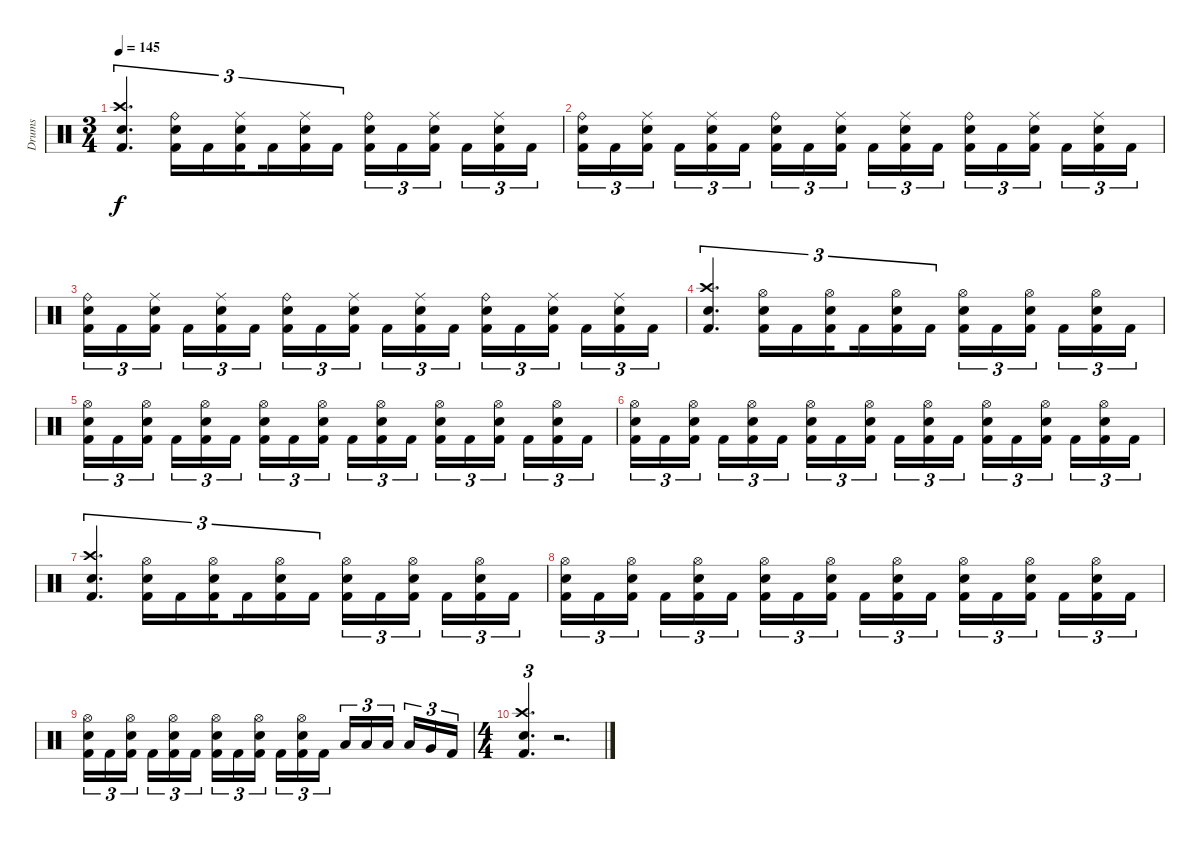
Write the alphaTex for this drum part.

\track ("Drums" "Drums") {instrument percussion}
\staff {score}
\articulation defaults
\ts (3 4)
\tempo 145
\clef neutral
\ks c
("Kick (hit) 2" "Crash high (hit)" "Snare (hit) 2").4{d tu (3 2) dy f} ("Kick (hit) 2" "Snare (hit) 2" "Ride (bell)").16{tu (3 2)} "Kick (hit) 2".16{tu (3 2)} ("Kick (hit) 2" "Snare (hit) 2" "Ride (middle)").16{tu (3 2) beam splitsecondary} "Kick (hit) 2".16{tu (3 2)} ("Kick (hit) 2" "Snare (hit) 2" "Ride (middle)").16{tu (3 2)} "Kick (hit) 2".16{tu (3 2)} ("Kick (hit) 2" "Snare (hit) 2" "Ride (bell)").16{tu (3 2)} "Kick (hit) 2".16{tu (3 2)} ("Kick (hit) 2" "Snare (hit) 2" "Ride (middle)").16{tu (3 2) beam splitsecondary} "Kick (hit) 2".16{tu (3 2)} ("Kick (hit) 2" "Snare (hit) 2" "Ride (middle)").16{tu (3 2)} "Kick (hit) 2".16{tu (3 2)} |
("Kick (hit) 2" "Snare (hit) 2" "Ride (bell)").16{tu (3 2)} "Kick (hit) 2".16{tu (3 2)} ("Kick (hit) 2" "Snare (hit) 2" "Ride (middle)").16{tu (3 2) beam splitsecondary} "Kick (hit) 2".16{tu (3 2)} ("Kick (hit) 2" "Snare (hit) 2" "Ride (middle)").16{tu (3 2)} "Kick (hit) 2".16{tu (3 2)} ("Kick (hit) 2" "Snare (hit) 2" "Ride (bell)").16{tu (3 2)} "Kick (hit) 2".16{tu (3 2)} ("Kick (hit) 2" "Snare (hit) 2" "Ride (middle)").16{tu (3 2) beam splitsecondary} "Kick (hit) 2".16{tu (3 2)} ("Kick (hit) 2" "Snare (hit) 2" "Ride (middle)").16{tu (3 2)} "Kick (hit) 2".16{tu (3 2)} ("Kick (hit) 2" "Snare (hit) 2" "Ride (bell)").16{tu (3 2)} "Kick (hit) 2".16{tu (3 2)} ("Kick (hit) 2" "Snare (hit) 2" "Ride (middle)").16{tu (3 2) beam splitsecondary} "Kick (hit) 2".16{tu (3 2)} ("Kick (hit) 2" "Snare (hit) 2" "Ride (middle)").16{tu (3 2)} "Kick (hit) 2".16{tu (3 2)} |
("Kick (hit) 2" "Snare (hit) 2" "Ride (bell)").16{tu (3 2)} "Kick (hit) 2".16{tu (3 2)} ("Kick (hit) 2" "Snare (hit) 2" "Ride (middle)").16{tu (3 2) beam splitsecondary} "Kick (hit) 2".16{tu (3 2)} ("Kick (hit) 2" "Snare (hit) 2" "Ride (middle)").16{tu (3 2)} "Kick (hit) 2".16{tu (3 2)} ("Kick (hit) 2" "Snare (hit) 2" "Ride (bell)").16{tu (3 2)} "Kick (hit) 2".16{tu (3 2)} ("Kick (hit) 2" "Snare (hit) 2" "Ride (middle)").16{tu (3 2) beam splitsecondary} "Kick (hit) 2".16{tu (3 2)} ("Kick (hit) 2" "Snare (hit) 2" "Ride (middle)").16{tu (3 2)} "Kick (hit) 2".16{tu (3 2)} ("Kick (hit) 2" "Snare (hit) 2" "Ride (bell)").16{tu (3 2)} "Kick (hit) 2".16{tu (3 2)} ("Kick (hit) 2" "Snare (hit) 2" "Ride (middle)").16{tu (3 2) beam splitsecondary} "Kick (hit) 2".16{tu (3 2)} ("Kick (hit) 2" "Snare (hit) 2" "Ride (middle)").16{tu (3 2)} "Kick (hit) 2".16{tu (3 2)} |
("Kick (hit) 2" "Crash high (hit)" "Snare (hit) 2").4{d tu (3 2)} ("Kick (hit) 2" "Snare (hit) 2" "Hi-Hat (open)").16{tu (3 2)} "Kick (hit) 2".16{tu (3 2)} ("Kick (hit) 2" "Snare (hit) 2" "Hi-Hat (open)").16{tu (3 2) beam splitsecondary} "Kick (hit) 2".16{tu (3 2)} ("Kick (hit) 2" "Snare (hit) 2" "Hi-Hat (open)").16{tu (3 2)} "Kick (hit) 2".16{tu (3 2)} ("Kick (hit) 2" "Snare (hit) 2" "Hi-Hat (open)").16{tu (3 2)} "Kick (hit) 2".16{tu (3 2)} ("Kick (hit) 2" "Snare (hit) 2" "Hi-Hat (open)").16{tu (3 2) beam splitsecondary} "Kick (hit) 2".16{tu (3 2)} ("Kick (hit) 2" "Snare (hit) 2" "Hi-Hat (open)").16{tu (3 2)} "Kick (hit) 2".16{tu (3 2)} |
("Kick (hit) 2" "Snare (hit) 2" "Hi-Hat (open)").16{tu (3 2)} "Kick (hit) 2".16{tu (3 2)} ("Kick (hit) 2" "Snare (hit) 2" "Hi-Hat (open)").16{tu (3 2) beam splitsecondary} "Kick (hit) 2".16{tu (3 2)} ("Kick (hit) 2" "Snare (hit) 2" "Hi-Hat (open)").16{tu (3 2)} "Kick (hit) 2".16{tu (3 2)} ("Kick (hit) 2" "Snare (hit) 2" "Hi-Hat (open)").16{tu (3 2)} "Kick (hit) 2".16{tu (3 2)} ("Kick (hit) 2" "Snare (hit) 2" "Hi-Hat (open)").16{tu (3 2) beam splitsecondary} "Kick (hit) 2".16{tu (3 2)} ("Kick (hit) 2" "Snare (hit) 2" "Hi-Hat (open)").16{tu (3 2)} "Kick (hit) 2".16{tu (3 2)} ("Kick (hit) 2" "Snare (hit) 2" "Hi-Hat (open)").16{tu (3 2)} "Kick (hit) 2".16{tu (3 2)} ("Kick (hit) 2" "Snare (hit) 2" "Hi-Hat (open)").16{tu (3 2) beam splitsecondary} "Kick (hit) 2".16{tu (3 2)} ("Kick (hit) 2" "Snare (hit) 2" "Hi-Hat (open)").16{tu (3 2)} "Kick (hit) 2".16{tu (3 2)} |
("Kick (hit) 2" "Snare (hit) 2" "Hi-Hat (open)").16{tu (3 2)} "Kick (hit) 2".16{tu (3 2)} ("Kick (hit) 2" "Snare (hit) 2" "Hi-Hat (open)").16{tu (3 2) beam splitsecondary} "Kick (hit) 2".16{tu (3 2)} ("Kick (hit) 2" "Snare (hit) 2" "Hi-Hat (open)").16{tu (3 2)} "Kick (hit) 2".16{tu (3 2)} ("Kick (hit) 2" "Snare (hit) 2" "Hi-Hat (open)").16{tu (3 2)} "Kick (hit) 2".16{tu (3 2)} ("Kick (hit) 2" "Snare (hit) 2" "Hi-Hat (open)").16{tu (3 2) beam splitsecondary} "Kick (hit) 2".16{tu (3 2)} ("Kick (hit) 2" "Snare (hit) 2" "Hi-Hat (open)").16{tu (3 2)} "Kick (hit) 2".16{tu (3 2)} ("Kick (hit) 2" "Snare (hit) 2" "Hi-Hat (open)").16{tu (3 2)} "Kick (hit) 2".16{tu (3 2)} ("Kick (hit) 2" "Snare (hit) 2" "Hi-Hat (open)").16{tu (3 2) beam splitsecondary} "Kick (hit) 2".16{tu (3 2)} ("Kick (hit) 2" "Snare (hit) 2" "Hi-Hat (open)").16{tu (3 2)} "Kick (hit) 2".16{tu (3 2)} |
("Kick (hit) 2" "Crash high (hit)" "Snare (hit) 2").4{d tu (3 2)} ("Kick (hit) 2" "Snare (hit) 2" "Hi-Hat (open)").16{tu (3 2)} "Kick (hit) 2".16{tu (3 2)} ("Kick (hit) 2" "Snare (hit) 2" "Hi-Hat (open)").16{tu (3 2) beam splitsecondary} "Kick (hit) 2".16{tu (3 2)} ("Kick (hit) 2" "Snare (hit) 2" "Hi-Hat (open)").16{tu (3 2)} "Kick (hit) 2".16{tu (3 2)} ("Kick (hit) 2" "Snare (hit) 2" "Hi-Hat (open)").16{tu (3 2)} "Kick (hit) 2".16{tu (3 2)} ("Kick (hit) 2" "Snare (hit) 2" "Hi-Hat (open)").16{tu (3 2) beam splitsecondary} "Kick (hit) 2".16{tu (3 2)} ("Kick (hit) 2" "Snare (hit) 2" "Hi-Hat (open)").16{tu (3 2)} "Kick (hit) 2".16{tu (3 2)} |
("Kick (hit) 2" "Snare (hit) 2" "Hi-Hat (open)").16{tu (3 2)} "Kick (hit) 2".16{tu (3 2)} ("Kick (hit) 2" "Snare (hit) 2" "Hi-Hat (open)").16{tu (3 2) beam splitsecondary} "Kick (hit) 2".16{tu (3 2)} ("Kick (hit) 2" "Snare (hit) 2" "Hi-Hat (open)").16{tu (3 2)} "Kick (hit) 2".16{tu (3 2)} ("Kick (hit) 2" "Snare (hit) 2" "Hi-Hat (open)").16{tu (3 2)} "Kick (hit) 2".16{tu (3 2)} ("Kick (hit) 2" "Snare (hit) 2" "Hi-Hat (open)").16{tu (3 2) beam splitsecondary} "Kick (hit) 2".16{tu (3 2)} ("Kick (hit) 2" "Snare (hit) 2" "Hi-Hat (open)").16{tu (3 2)} "Kick (hit) 2".16{tu (3 2)} ("Kick (hit) 2" "Snare (hit) 2" "Hi-Hat (open)").16{tu (3 2)} "Kick (hit) 2".16{tu (3 2)} ("Kick (hit) 2" "Snare (hit) 2" "Hi-Hat (open)").16{tu (3 2) beam splitsecondary} "Kick (hit) 2".16{tu (3 2)} ("Kick (hit) 2" "Snare (hit) 2" "Hi-Hat (open)").16{tu (3 2)} "Kick (hit) 2".16{tu (3 2)} |
("Kick (hit) 2" "Snare (hit) 2" "Hi-Hat (open)").16{tu (3 2)} "Kick (hit) 2".16{tu (3 2)} ("Kick (hit) 2" "Snare (hit) 2" "Hi-Hat (open)").16{tu (3 2) beam splitsecondary} "Kick (hit) 2".16{tu (3 2)} ("Kick (hit) 2" "Snare (hit) 2" "Hi-Hat (open)").16{tu (3 2)} "Kick (hit) 2".16{tu (3 2)} ("Kick (hit) 2" "Snare (hit) 2" "Hi-Hat (open)").16{tu (3 2)} "Kick (hit) 2".16{tu (3 2)} ("Kick (hit) 2" "Snare (hit) 2" "Hi-Hat (open)").16{tu (3 2) beam splitsecondary} "Kick (hit) 2".16{tu (3 2)} ("Kick (hit) 2" "Snare (hit) 2" "Hi-Hat (open)").16{tu (3 2)} "Kick (hit) 2".16{tu (3 2)} "Low Tom (hit)".16{tu (3 2)} "Low Tom (hit)".16{tu (3 2)} "Low Tom (hit)".16{tu (3 2) beam splitsecondary} "Low Tom (hit)".16{tu (3 2)} "Very Low Tom (hit)".16{tu (3 2)} "Kick (hit) 2".16{tu (3 2)} |
\ts (4 4)
("Crash high (hit)" "Snare (hit) 2" "Kick (hit) 2").4{d tu (3 2)} r.2{d}
